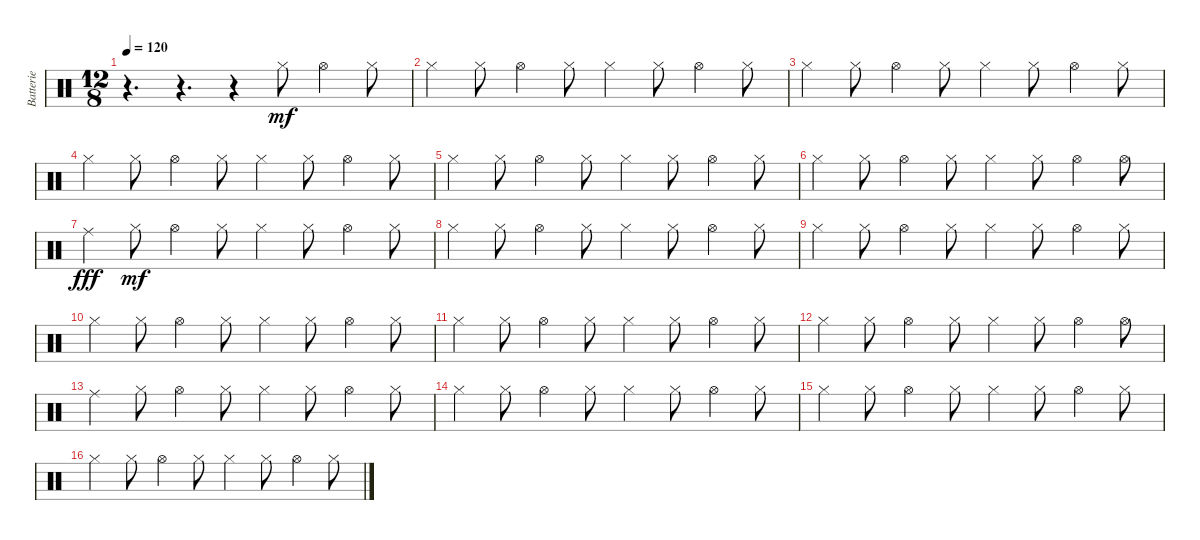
\track ("Batterie" "Batterie") {instrument percussion}
\staff {score}
\articulation defaults
\ts (12 8)
\tempo 120
\clef neutral
\ks c
r.4{d dy mf} r.4{d} r.4 "Hi-Hat (closed)".8 "Hi-Hat (open)".4 "Hi-Hat (closed)".8 |
"Hi-Hat (closed)".4 "Hi-Hat (closed)".8 "Hi-Hat (open)".4 "Hi-Hat (closed)".8 "Hi-Hat (closed)".4 "Hi-Hat (closed)".8 "Hi-Hat (open)".4 "Hi-Hat (closed)".8 |
"Hi-Hat (closed)".4 "Hi-Hat (closed)".8 "Hi-Hat (open)".4 "Hi-Hat (closed)".8 "Hi-Hat (closed)".4 "Hi-Hat (closed)".8 "Hi-Hat (open)".4 "Hi-Hat (closed)".8 |
"Hi-Hat (closed)".4 "Hi-Hat (closed)".8 "Hi-Hat (open)".4 "Hi-Hat (closed)".8 "Hi-Hat (closed)".4 "Hi-Hat (closed)".8 "Hi-Hat (open)".4 "Hi-Hat (closed)".8 |
"Hi-Hat (closed)".4 "Hi-Hat (closed)".8 "Hi-Hat (open)".4 "Hi-Hat (closed)".8 "Hi-Hat (closed)".4 "Hi-Hat (closed)".8 "Hi-Hat (open)".4 "Hi-Hat (closed)".8 |
"Hi-Hat (closed)".4 "Hi-Hat (closed)".8 "Hi-Hat (open)".4 "Hi-Hat (closed)".8 "Hi-Hat (closed)".4 "Hi-Hat (closed)".8 "Hi-Hat (open)".4 "Hi-Hat (open)".8 |
"Ride (middle)".4{dy fff} "Hi-Hat (closed)".8{dy mf} "Hi-Hat (open)".4 "Hi-Hat (closed)".8 "Hi-Hat (closed)".4 "Hi-Hat (closed)".8 "Hi-Hat (open)".4 "Hi-Hat (closed)".8 |
"Hi-Hat (closed)".4 "Hi-Hat (closed)".8 "Hi-Hat (open)".4 "Hi-Hat (closed)".8 "Hi-Hat (closed)".4 "Hi-Hat (closed)".8 "Hi-Hat (open)".4 "Hi-Hat (closed)".8 |
"Hi-Hat (closed)".4 "Hi-Hat (closed)".8 "Hi-Hat (open)".4 "Hi-Hat (closed)".8 "Hi-Hat (closed)".4 "Hi-Hat (closed)".8 "Hi-Hat (open)".4 "Hi-Hat (closed)".8 |
"Hi-Hat (closed)".4 "Hi-Hat (closed)".8 "Hi-Hat (open)".4 "Hi-Hat (closed)".8 "Hi-Hat (closed)".4 "Hi-Hat (closed)".8 "Hi-Hat (open)".4 "Hi-Hat (closed)".8 |
"Hi-Hat (closed)".4 "Hi-Hat (closed)".8 "Hi-Hat (open)".4 "Hi-Hat (closed)".8 "Hi-Hat (closed)".4 "Hi-Hat (closed)".8 "Hi-Hat (open)".4 "Hi-Hat (closed)".8 |
"Hi-Hat (closed)".4 "Hi-Hat (closed)".8 "Hi-Hat (open)".4 "Hi-Hat (closed)".8 "Hi-Hat (closed)".4 "Hi-Hat (closed)".8 "Hi-Hat (open)".4 "Hi-Hat (open)".8 |
"Ride (middle)".4 "Hi-Hat (closed)".8 "Hi-Hat (open)".4 "Hi-Hat (closed)".8 "Hi-Hat (closed)".4 "Hi-Hat (closed)".8 "Hi-Hat (open)".4 "Hi-Hat (closed)".8 |
"Hi-Hat (closed)".4 "Hi-Hat (closed)".8 "Hi-Hat (open)".4 "Hi-Hat (closed)".8 "Hi-Hat (closed)".4 "Hi-Hat (closed)".8 "Hi-Hat (open)".4 "Hi-Hat (closed)".8 |
"Hi-Hat (closed)".4 "Hi-Hat (closed)".8 "Hi-Hat (open)".4 "Hi-Hat (closed)".8 "Hi-Hat (closed)".4 "Hi-Hat (closed)".8 "Hi-Hat (open)".4 "Hi-Hat (closed)".8 |
"Hi-Hat (closed)".4 "Hi-Hat (closed)".8 "Hi-Hat (open)".4 "Hi-Hat (closed)".8 "Hi-Hat (closed)".4 "Hi-Hat (closed)".8 "Hi-Hat (open)".4 "Hi-Hat (closed)".8
